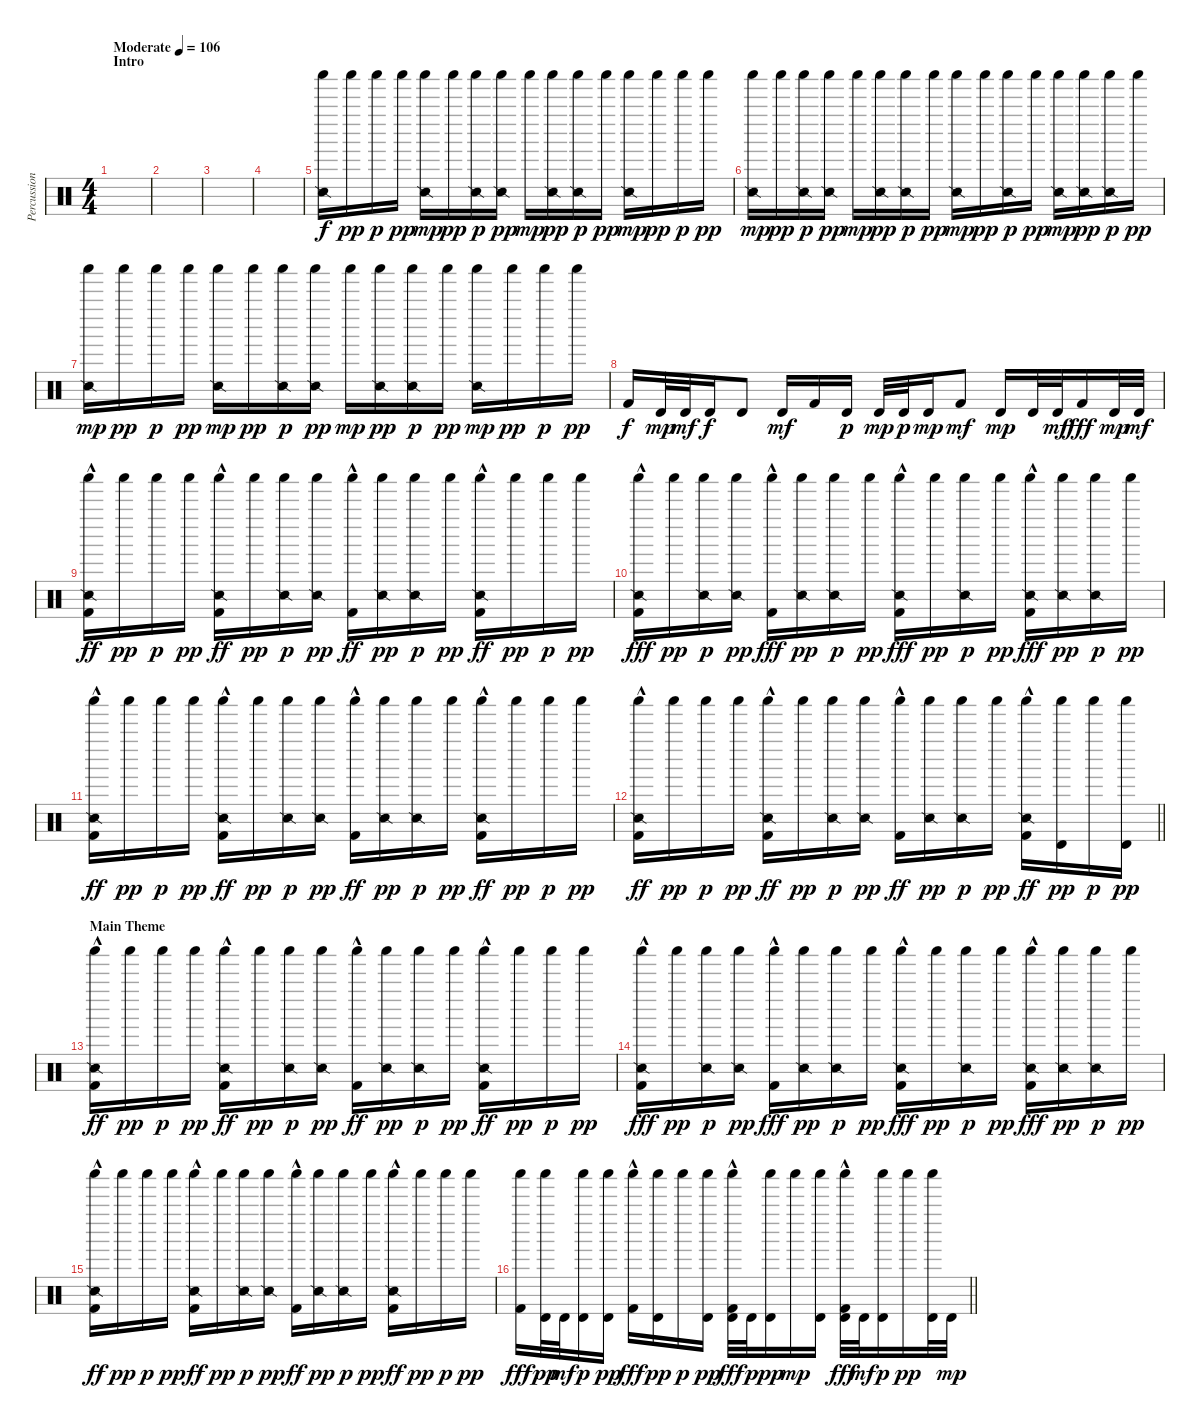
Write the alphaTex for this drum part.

\track ("Percussion" "Percussion") {instrument percussion}
\staff {score}
\articulation defaults
\ts (4 4)
\section ("" "Intro")
\tempo (106 "Moderate")
\clef neutral
\ks c
|
|
|
|
("Snare (side stick) 2" "Shaker (hit)").16 "Shaker (hit)".16{dy pp} "Shaker (hit)".16{dy p} "Shaker (hit)".16{dy pp} ("Snare (side stick) 2" "Shaker (hit)").16{dy mp} "Shaker (hit)".16{dy pp} ("Snare (side stick) 2" "Shaker (hit)").16{dy p} ("Snare (side stick) 2" "Shaker (hit)").16{dy pp} "Shaker (hit)".16{dy mp} ("Snare (side stick) 2" "Shaker (hit)").16{dy pp} ("Snare (side stick) 2" "Shaker (hit)").16{dy p} "Shaker (hit)".16{dy pp} ("Snare (side stick) 2" "Shaker (hit)").16{dy mp} "Shaker (hit)".16{dy pp} "Shaker (hit)".16{dy p} "Shaker (hit)".16{dy pp} |
("Snare (side stick) 2" "Shaker (hit)").16{dy mp} "Shaker (hit)".16{dy pp} ("Snare (side stick) 2" "Shaker (hit)").16{dy p} ("Snare (side stick) 2" "Shaker (hit)").16{dy pp} "Shaker (hit)".16{dy mp} ("Snare (side stick) 2" "Shaker (hit)").16{dy pp} ("Snare (side stick) 2" "Shaker (hit)").16{dy p} "Shaker (hit)".16{dy pp} ("Snare (side stick) 2" "Shaker (hit)").16{dy mp} "Shaker (hit)".16{dy pp} ("Snare (side stick) 2" "Shaker (hit)").16{dy p} "Shaker (hit)".16{dy pp} ("Snare (side stick) 2" "Shaker (hit)").16{dy mp} ("Snare (side stick) 2" "Shaker (hit)").16{dy pp} ("Snare (side stick) 2" "Shaker (hit)").16{dy p} "Shaker (hit)".16{dy pp} |
("Snare (side stick) 2" "Shaker (hit)").16{dy mp} "Shaker (hit)".16{dy pp} "Shaker (hit)".16{dy p} "Shaker (hit)".16{dy pp} ("Snare (side stick) 2" "Shaker (hit)").16{dy mp} "Shaker (hit)".16{dy pp} ("Snare (side stick) 2" "Shaker (hit)").16{dy p} ("Snare (side stick) 2" "Shaker (hit)").16{dy pp} "Shaker (hit)".16{dy mp} ("Snare (side stick) 2" "Shaker (hit)").16{dy pp} ("Snare (side stick) 2" "Shaker (hit)").16{dy p} "Shaker (hit)".16{dy pp} ("Snare (side stick) 2" "Shaker (hit)").16{dy mp} "Shaker (hit)".16{dy pp} "Shaker (hit)".16{dy p} "Shaker (hit)".16{dy pp} |
"Kick (hit) 2".16{dy f} "Timbale high (hit)".32{dy mp} "Timbale high (hit)".32{dy mf} "Timbale high (hit)".16{dy f} "Timbale high (hit)".8 "Timbale high (hit)".16{dy mf} "Kick (hit) 2".16 "Timbale high (hit)".16{dy p} "Timbale high (hit)".32{dy mp} "Timbale high (hit)".32{dy p} "Timbale high (hit)".16{dy mp} "Kick (hit) 2".8{dy mf} "Timbale high (hit)".16{dy mp} "Timbale high (hit)".32 "Timbale high (hit)".32{dy mf} "Kick (hit) 2".16{dy fff} "Timbale high (hit)".32{dy mp} "Timbale high (hit)".32{dy mf} |
("Snare (side stick) 2" "Shaker (hit)" "Kick (hit) 2"{hac}).16{dy ff} "Shaker (hit)".16{dy pp} "Shaker (hit)".16{dy p} "Shaker (hit)".16{dy pp} ("Snare (side stick) 2" "Shaker (hit)" "Kick (hit) 2"{hac}).16{dy ff} "Shaker (hit)".16{dy pp} ("Snare (side stick) 2" "Shaker (hit)").16{dy p} ("Snare (side stick) 2" "Shaker (hit)").16{dy pp} ("Shaker (hit)" "Kick (hit) 2"{hac}).16{dy ff} ("Snare (side stick) 2" "Shaker (hit)").16{dy pp} ("Snare (side stick) 2" "Shaker (hit)").16{dy p} "Shaker (hit)".16{dy pp} ("Snare (side stick) 2" "Shaker (hit)" "Kick (hit) 2"{hac}).16{dy ff} "Shaker (hit)".16{dy pp} "Shaker (hit)".16{dy p} "Shaker (hit)".16{dy pp} |
("Snare (side stick) 2" "Shaker (hit)" "Kick (hit) 2"{hac}).16{dy fff} "Shaker (hit)".16{dy pp} ("Snare (side stick) 2" "Shaker (hit)").16{dy p} ("Snare (side stick) 2" "Shaker (hit)").16{dy pp} ("Shaker (hit)" "Kick (hit) 2"{hac}).16{dy fff} ("Snare (side stick) 2" "Shaker (hit)").16{dy pp} ("Snare (side stick) 2" "Shaker (hit)").16{dy p} "Shaker (hit)".16{dy pp} ("Snare (side stick) 2" "Shaker (hit)" "Kick (hit) 2"{hac}).16{dy fff} "Shaker (hit)".16{dy pp} ("Snare (side stick) 2" "Shaker (hit)").16{dy p} "Shaker (hit)".16{dy pp} ("Snare (side stick) 2" "Shaker (hit)" "Kick (hit) 2"{hac}).16{dy fff} ("Snare (side stick) 2" "Shaker (hit)").16{dy pp} ("Snare (side stick) 2" "Shaker (hit)").16{dy p} "Shaker (hit)".16{dy pp} |
("Snare (side stick) 2" "Shaker (hit)" "Kick (hit) 2"{hac}).16{dy ff} "Shaker (hit)".16{dy pp} "Shaker (hit)".16{dy p} "Shaker (hit)".16{dy pp} ("Snare (side stick) 2" "Shaker (hit)" "Kick (hit) 2"{hac}).16{dy ff} "Shaker (hit)".16{dy pp} ("Snare (side stick) 2" "Shaker (hit)").16{dy p} ("Snare (side stick) 2" "Shaker (hit)").16{dy pp} ("Shaker (hit)" "Kick (hit) 2"{hac}).16{dy ff} ("Snare (side stick) 2" "Shaker (hit)").16{dy pp} ("Snare (side stick) 2" "Shaker (hit)").16{dy p} "Shaker (hit)".16{dy pp} ("Snare (side stick) 2" "Shaker (hit)" "Kick (hit) 2"{hac}).16{dy ff} "Shaker (hit)".16{dy pp} "Shaker (hit)".16{dy p} "Shaker (hit)".16{dy pp} |
\barLineRight lightlight
("Snare (side stick) 2" "Shaker (hit)" "Kick (hit) 2"{hac}).16{dy ff} "Shaker (hit)".16{dy pp} "Shaker (hit)".16{dy p} "Shaker (hit)".16{dy pp} ("Snare (side stick) 2" "Shaker (hit)" "Kick (hit) 2"{hac}).16{dy ff} "Shaker (hit)".16{dy pp} ("Snare (side stick) 2" "Shaker (hit)").16{dy p} ("Snare (side stick) 2" "Shaker (hit)").16{dy pp} ("Shaker (hit)" "Kick (hit) 2"{hac}).16{dy ff} ("Snare (side stick) 2" "Shaker (hit)").16{dy pp} ("Snare (side stick) 2" "Shaker (hit)").16{dy p} "Shaker (hit)".16{dy pp} ("Snare (side stick) 2" "Shaker (hit)" "Kick (hit) 2"{hac}).16{dy ff} ("Timbale high (hit)" "Shaker (hit)").16{dy pp} "Shaker (hit)".16{dy p} ("Timbale high (hit)" "Shaker (hit)").16{dy pp} |
\section ("" "Main Theme")
("Snare (side stick) 2" "Shaker (hit)" "Kick (hit) 2"{hac}).16{dy ff} "Shaker (hit)".16{dy pp} "Shaker (hit)".16{dy p} "Shaker (hit)".16{dy pp} ("Snare (side stick) 2" "Shaker (hit)" "Kick (hit) 2"{hac}).16{dy ff} "Shaker (hit)".16{dy pp} ("Snare (side stick) 2" "Shaker (hit)").16{dy p} ("Snare (side stick) 2" "Shaker (hit)").16{dy pp} ("Shaker (hit)" "Kick (hit) 2"{hac}).16{dy ff} ("Snare (side stick) 2" "Shaker (hit)").16{dy pp} ("Snare (side stick) 2" "Shaker (hit)").16{dy p} "Shaker (hit)".16{dy pp} ("Snare (side stick) 2" "Shaker (hit)" "Kick (hit) 2"{hac}).16{dy ff} "Shaker (hit)".16{dy pp} "Shaker (hit)".16{dy p} "Shaker (hit)".16{dy pp} |
("Snare (side stick) 2" "Shaker (hit)" "Kick (hit) 2"{hac}).16{dy fff} "Shaker (hit)".16{dy pp} ("Snare (side stick) 2" "Shaker (hit)").16{dy p} ("Snare (side stick) 2" "Shaker (hit)").16{dy pp} ("Shaker (hit)" "Kick (hit) 2"{hac}).16{dy fff} ("Snare (side stick) 2" "Shaker (hit)").16{dy pp} ("Snare (side stick) 2" "Shaker (hit)").16{dy p} "Shaker (hit)".16{dy pp} ("Snare (side stick) 2" "Shaker (hit)" "Kick (hit) 2"{hac}).16{dy fff} "Shaker (hit)".16{dy pp} ("Snare (side stick) 2" "Shaker (hit)").16{dy p} "Shaker (hit)".16{dy pp} ("Snare (side stick) 2" "Shaker (hit)" "Kick (hit) 2"{hac}).16{dy fff} ("Snare (side stick) 2" "Shaker (hit)").16{dy pp} ("Snare (side stick) 2" "Shaker (hit)").16{dy p} "Shaker (hit)".16{dy pp} |
("Snare (side stick) 2" "Shaker (hit)" "Kick (hit) 2"{hac}).16{dy ff} "Shaker (hit)".16{dy pp} "Shaker (hit)".16{dy p} "Shaker (hit)".16{dy pp} ("Snare (side stick) 2" "Shaker (hit)" "Kick (hit) 2"{hac}).16{dy ff} "Shaker (hit)".16{dy pp} ("Snare (side stick) 2" "Shaker (hit)").16{dy p} ("Snare (side stick) 2" "Shaker (hit)").16{dy pp} ("Shaker (hit)" "Kick (hit) 2"{hac}).16{dy ff} ("Snare (side stick) 2" "Shaker (hit)").16{dy pp} ("Snare (side stick) 2" "Shaker (hit)").16{dy p} "Shaker (hit)".16{dy pp} ("Snare (side stick) 2" "Shaker (hit)" "Kick (hit) 2"{hac}).16{dy ff} "Shaker (hit)".16{dy pp} "Shaker (hit)".16{dy p} "Shaker (hit)".16{dy pp} |
\barLineRight lightlight
("Shaker (hit)" "Kick (hit) 2").16{dy fff} ("Timbale high (hit)" "Shaker (hit)").32{dy pp} "Timbale high (hit)".32{dy mf} ("Timbale high (hit)" "Shaker (hit)").16{dy p} ("Timbale high (hit)" "Shaker (hit)").16{dy pp} ("Shaker (hit)" "Kick (hit) 2"{hac}).16{dy fff} ("Timbale high (hit)" "Shaker (hit)").16{dy pp} "Shaker (hit)".16{dy p} ("Timbale high (hit)" "Shaker (hit)").16{dy pp} ("Timbale high (hit)" "Shaker (hit)" "Kick (hit) 2"{hac}).32{dy fff} "Timbale high (hit)".32{dy p} ("Timbale high (hit)" "Shaker (hit)").16{dy pp} "Shaker (hit)".16{dy mp} ("Timbale high (hit)" "Shaker (hit)").16 ("Timbale high (hit)" "Shaker (hit)" "Kick (hit) 2"{hac}).32{dy fff} "Timbale high (hit)".32{dy mf} ("Timbale high (hit)" "Shaker (hit)").16{dy p} "Shaker (hit)".16{dy pp} ("Timbale high (hit)" "Shaker (hit)").32 "Timbale high (hit)".32{dy mp}
